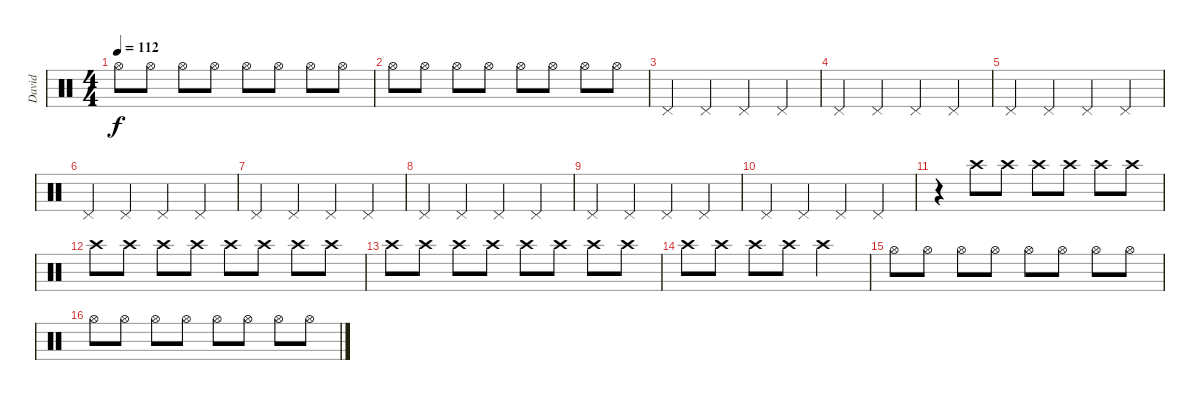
\track ("David" "David") {instrument percussion}
\staff {score}
\articulation defaults
\ts (4 4)
\tempo 112
\clef neutral
\ks c "Hi-Hat (open)".8{dy f} "Hi-Hat (open)".8 "Hi-Hat (open)".8 "Hi-Hat (open)".8 "Hi-Hat (open)".8 "Hi-Hat (open)".8 "Hi-Hat (open)".8 "Hi-Hat (open)".8
|
"Hi-Hat (open)".8 "Hi-Hat (open)".8 "Hi-Hat (open)".8 "Hi-Hat (open)".8 "Hi-Hat (open)".8 "Hi-Hat (open)".8 "Hi-Hat (open)".8 "Hi-Hat (open)".8 |
"Pedal Hi-Hat (hit)".4 "Pedal Hi-Hat (hit)".4 "Pedal Hi-Hat (hit)".4 "Pedal Hi-Hat (hit)".4 |
"Pedal Hi-Hat (hit)".4 "Pedal Hi-Hat (hit)".4 "Pedal Hi-Hat (hit)".4 "Pedal Hi-Hat (hit)".4 |
"Pedal Hi-Hat (hit)".4 "Pedal Hi-Hat (hit)".4 "Pedal Hi-Hat (hit)".4 "Pedal Hi-Hat (hit)".4 |
"Pedal Hi-Hat (hit)".4 "Pedal Hi-Hat (hit)".4 "Pedal Hi-Hat (hit)".4 "Pedal Hi-Hat (hit)".4 |
"Pedal Hi-Hat (hit)".4 "Pedal Hi-Hat (hit)".4 "Pedal Hi-Hat (hit)".4 "Pedal Hi-Hat (hit)".4 |
"Pedal Hi-Hat (hit)".4 "Pedal Hi-Hat (hit)".4 "Pedal Hi-Hat (hit)".4 "Pedal Hi-Hat (hit)".4 |
"Pedal Hi-Hat (hit)".4 "Pedal Hi-Hat (hit)".4 "Pedal Hi-Hat (hit)".4 "Pedal Hi-Hat (hit)".4 |
"Pedal Hi-Hat (hit)".4 "Pedal Hi-Hat (hit)".4 "Pedal Hi-Hat (hit)".4 "Pedal Hi-Hat (hit)".4 |
r.4 "Crash high (hit)".8 "Crash high (hit)".8 "Crash high (hit)".8 "Crash high (hit)".8 "Crash high (hit)".8 "Crash high (hit)".8 |
"Crash high (hit)".8 "Crash high (hit)".8 "Crash high (hit)".8 "Crash high (hit)".8 "Crash high (hit)".8 "Crash high (hit)".8 "Crash high (hit)".8 "Crash high (hit)".8 |
"Crash high (hit)".8 "Crash high (hit)".8 "Crash high (hit)".8 "Crash high (hit)".8 "Crash high (hit)".8 "Crash high (hit)".8 "Crash high (hit)".8 "Crash high (hit)".8 |
"Crash high (hit)".8 "Crash high (hit)".8 "Crash high (hit)".8 "Crash high (hit)".8 "Crash high (hit)".2 |
"Hi-Hat (open)".8 "Hi-Hat (open)".8 "Hi-Hat (open)".8 "Hi-Hat (open)".8 "Hi-Hat (open)".8 "Hi-Hat (open)".8 "Hi-Hat (open)".8 "Hi-Hat (open)".8 |
"Hi-Hat (open)".8 "Hi-Hat (open)".8 "Hi-Hat (open)".8 "Hi-Hat (open)".8 "Hi-Hat (open)".8 "Hi-Hat (open)".8 "Hi-Hat (open)".8 "Hi-Hat (open)".8
